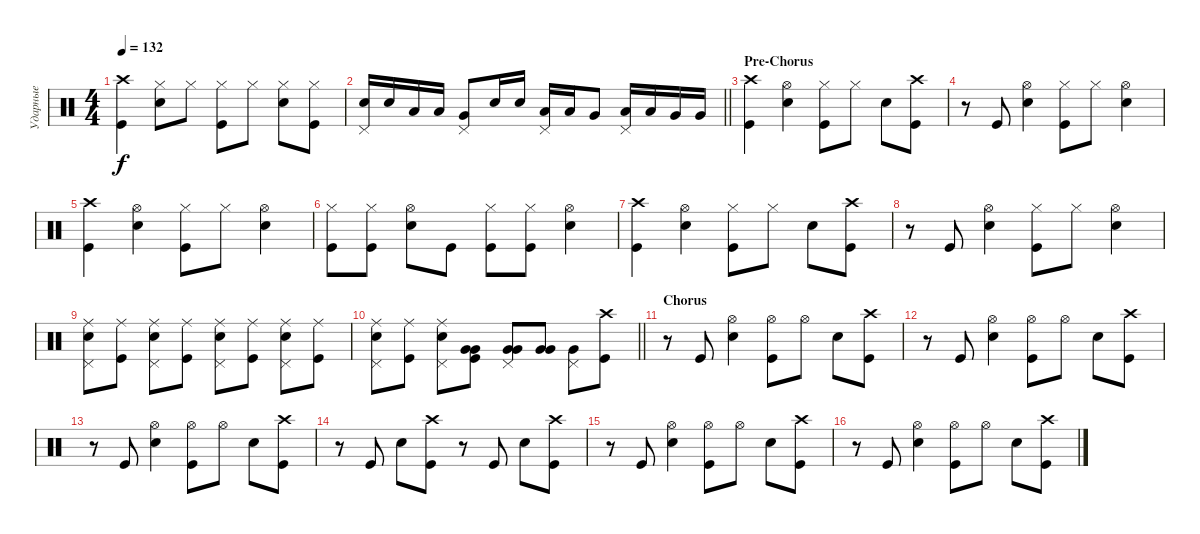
\track ("Ударные" "Ударные") {instrument percussion}
\staff {score}
\articulation defaults
\ts (4 4)
\tempo 132
\clef neutral
\ks c
("Kick (hit)" "Crash high (hit)").4{dy f} ("Snare (hit) 2" "Hi-Hat (closed)").8 "Hi-Hat (closed)".8 ("Kick (hit)" "Hi-Hat (closed)").8 "Hi-Hat (closed)".8 ("Snare (hit) 2" "Hi-Hat (closed)").8 ("Kick (hit)" "Hi-Hat (closed)").8 |
\barLineRight lightlight
("Snare (hit) 2" "Pedal Hi-Hat (hit)").16 "Snare (hit) 2".16 "Low Tom (hit)".16 "Low Tom (hit)".16 ("Very Low Tom (hit)" "Pedal Hi-Hat (hit)").8 "Snare (hit) 2".16 "Snare (hit) 2".16 ("Low Tom (hit)" "Pedal Hi-Hat (hit)").16 "Low Tom (hit)".16 "Very Low Tom (hit)".8 ("Low Tom (hit)" "Pedal Hi-Hat (hit)").16 "Low Tom (hit)".16 "Very Low Tom (hit)".16 "Very Low Tom (hit)".16 |
\section ("" "Pre-Chorus")
("Kick (hit)" "Crash high (hit)").4 ("Snare (hit) 2" "Hi-Hat (open)").4 ("Hi-Hat (closed)" "Kick (hit)").8 "Hi-Hat (closed)".8 "Snare (hit) 2".8 ("Kick (hit)" "Crash high (hit)").8 |
r.8 "Kick (hit)".8 ("Snare (hit) 2" "Hi-Hat (open)").4 ("Hi-Hat (closed)" "Kick (hit)").8 "Hi-Hat (closed)".8 ("Hi-Hat (open)" "Snare (hit) 2").4 |
("Kick (hit)" "Crash high (hit)").4 ("Hi-Hat (open)" "Snare (hit) 2").4 ("Kick (hit)" "Hi-Hat (closed)").8 "Hi-Hat (closed)".8 ("Snare (hit) 2" "Hi-Hat (open)").4 |
("Kick (hit)" "Hi-Hat (closed)").8 ("Kick (hit)" "Hi-Hat (closed)").8 ("Snare (hit) 2" "Hi-Hat (open)").8 "Kick (hit)".8 ("Kick (hit)" "Hi-Hat (closed)").8 ("Kick (hit)" "Hi-Hat (closed)").8 ("Snare (hit) 2" "Hi-Hat (open)").4 |
("Kick (hit)" "Crash high (hit)").4 ("Snare (hit) 2" "Hi-Hat (open)").4 ("Hi-Hat (closed)" "Kick (hit)").8 "Hi-Hat (closed)".8 "Snare (hit) 2".8 ("Kick (hit)" "Crash high (hit)").8 |
r.8 "Kick (hit)".8 ("Snare (hit) 2" "Hi-Hat (open)").4 ("Hi-Hat (closed)" "Kick (hit)").8 "Hi-Hat (closed)".8 ("Hi-Hat (open)" "Snare (hit) 2").4 |
("Snare (hit) 2" "Pedal Hi-Hat (hit)" "Ride (middle)").8 ("Kick (hit)" "Ride (middle)").8 ("Snare (hit) 2" "Pedal Hi-Hat (hit)" "Ride (middle)").8 ("Kick (hit)" "Ride (middle)").8 ("Snare (hit) 2" "Pedal Hi-Hat (hit)" "Ride (middle)").8 ("Kick (hit)" "Ride (middle)").8 ("Snare (hit) 2" "Pedal Hi-Hat (hit)" "Ride (middle)").8 ("Kick (hit)" "Ride (middle)").8 |
\barLineRight lightlight
("Snare (hit) 2" "Pedal Hi-Hat (hit)" "Ride (middle)").8 ("Kick (hit)" "Ride (middle)").8 ("Snare (hit) 2" "Pedal Hi-Hat (hit)" "Ride (middle)").8 ("Kick (hit)" "Very Low Tom (hit)" "Very Low Tom (hit)").8{bd 120} ("Pedal Hi-Hat (hit)" "Very Low Tom (hit)" "Very Low Tom (hit)").8{bd 120} ("Very Low Tom (hit)" "Very Low Tom (hit)").8{bd 120} ("Pedal Hi-Hat (hit)" "Very Low Tom (hit)").8 ("Kick (hit)" "Crash high (hit)").8 |
\section ("" "Chorus")
r.8 "Kick (hit)".8 ("Snare (hit) 2" "Hi-Hat (open)").4 ("Hi-Hat (open)" "Kick (hit)").8 "Hi-Hat (open)".8 "Snare (hit) 2".8 ("Kick (hit)" "Crash high (hit)").8 |
r.8 "Kick (hit)".8 ("Snare (hit) 2" "Hi-Hat (open)").4 ("Hi-Hat (open)" "Kick (hit)").8 "Hi-Hat (open)".8 "Snare (hit) 2".8 ("Kick (hit)" "Crash high (hit)").8 |
r.8 "Kick (hit)".8 ("Snare (hit) 2" "Hi-Hat (open)").4 ("Hi-Hat (open)" "Kick (hit)").8 "Hi-Hat (open)".8 "Snare (hit) 2".8 ("Kick (hit)" "Crash high (hit)").8 |
r.8 "Kick (hit)".8 "Snare (hit) 2".8 ("Crash high (hit)" "Kick (hit)").8 r.8 "Kick (hit)".8 "Snare (hit) 2".8 ("Kick (hit)" "Crash high (hit)").8 |
r.8 "Kick (hit)".8 ("Snare (hit) 2" "Hi-Hat (open)").4 ("Hi-Hat (open)" "Kick (hit)").8 "Hi-Hat (open)".8 "Snare (hit) 2".8 ("Kick (hit)" "Crash high (hit)").8 |
r.8 "Kick (hit)".8 ("Snare (hit) 2" "Hi-Hat (open)").4 ("Hi-Hat (open)" "Kick (hit)").8 "Hi-Hat (open)".8 "Snare (hit) 2".8 ("Kick (hit)" "Crash high (hit)").8
